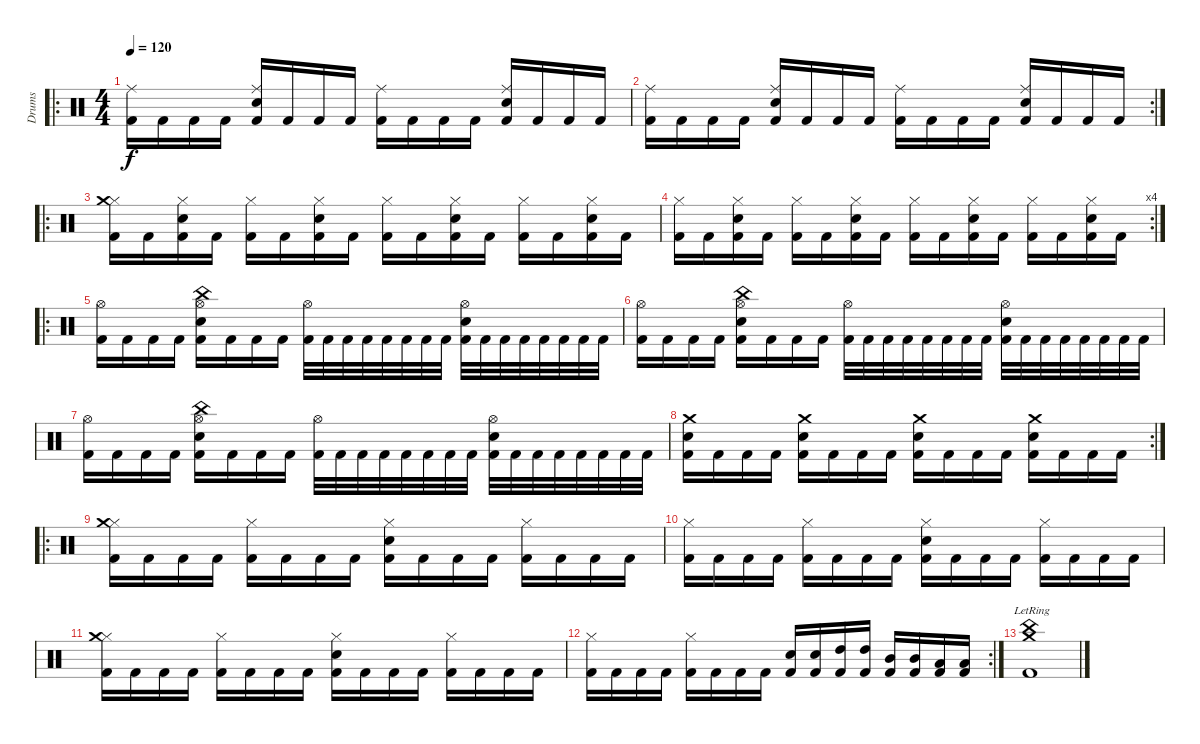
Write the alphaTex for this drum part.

\track ("Drums" "Drums") {instrument percussion}
\staff {score}
\articulation defaults
\ro
\ts (4 4)
\tempo 120
\clef neutral
\ks c
("Kick (hit) 2" "Ride (middle)").16{dy f} "Kick (hit) 2".16 "Kick (hit) 2".16 "Kick (hit) 2".16 ("Kick (hit) 2" "Ride (middle)" "Snare (hit) 2").16 "Kick (hit) 2".16 "Kick (hit) 2".16 "Kick (hit) 2".16 ("Kick (hit) 2" "Ride (middle)").16 "Kick (hit) 2".16 "Kick (hit) 2".16 "Kick (hit) 2".16 ("Kick (hit) 2" "Ride (middle)" "Snare (hit) 2").16 "Kick (hit) 2".16 "Kick (hit) 2".16 "Kick (hit) 2".16 |
\rc 2
("Kick (hit) 2" "Ride (middle)").16 "Kick (hit) 2".16 "Kick (hit) 2".16 "Kick (hit) 2".16 ("Kick (hit) 2" "Ride (middle)" "Snare (hit) 2").16 "Kick (hit) 2".16 "Kick (hit) 2".16 "Kick (hit) 2".16 ("Kick (hit) 2" "Ride (middle)").16 "Kick (hit) 2".16 "Kick (hit) 2".16 "Kick (hit) 2".16 ("Kick (hit) 2" "Ride (middle)" "Snare (hit) 2").16 "Kick (hit) 2".16 "Kick (hit) 2".16 "Kick (hit) 2".16 |
\ro
("Kick (hit) 2" "Hi-Hat (closed)" "Crash medium (hit)").16 "Kick (hit) 2".16 ("Kick (hit) 2" "Hi-Hat (closed)" "Snare (hit) 2").16 "Kick (hit) 2".16 ("Kick (hit) 2" "Hi-Hat (closed)").16 "Kick (hit) 2".16 ("Kick (hit) 2" "Hi-Hat (closed)" "Snare (hit) 2").16 "Kick (hit) 2".16 ("Kick (hit) 2" "Hi-Hat (closed)").16 "Kick (hit) 2".16 ("Kick (hit) 2" "Hi-Hat (closed)" "Snare (hit) 2").16 "Kick (hit) 2".16 ("Kick (hit) 2" "Hi-Hat (closed)").16 "Kick (hit) 2".16 ("Kick (hit) 2" "Hi-Hat (closed)" "Snare (hit) 2").16 "Kick (hit) 2".16 |
\rc 4
("Kick (hit) 2" "Hi-Hat (closed)").16 "Kick (hit) 2".16 ("Kick (hit) 2" "Hi-Hat (closed)" "Snare (hit) 2").16 "Kick (hit) 2".16 ("Kick (hit) 2" "Hi-Hat (closed)").16 "Kick (hit) 2".16 ("Kick (hit) 2" "Hi-Hat (closed)" "Snare (hit) 2").16 "Kick (hit) 2".16 ("Kick (hit) 2" "Hi-Hat (closed)").16 "Kick (hit) 2".16 ("Kick (hit) 2" "Hi-Hat (closed)" "Snare (hit) 2").16 "Kick (hit) 2".16 ("Kick (hit) 2" "Hi-Hat (closed)").16 "Kick (hit) 2".16 ("Kick (hit) 2" "Hi-Hat (closed)" "Snare (hit) 2").16 "Kick (hit) 2".16 |
\ro
("Kick (hit) 2" "Hi-Hat (open)").16 "Kick (hit) 2".16 "Kick (hit) 2".16 "Kick (hit) 2".16 ("Kick (hit) 2" "Hi-Hat (open)" "Snare (hit) 2" "China (hit)").16 "Kick (hit) 2".16 "Kick (hit) 2".16 "Kick (hit) 2".16 ("Kick (hit) 2" "Hi-Hat (open)").32 "Kick (hit) 2".32 "Kick (hit) 2".32 "Kick (hit) 2".32 "Kick (hit) 2".32 "Kick (hit) 2".32 "Kick (hit) 2".32 "Kick (hit) 2".32 ("Kick (hit) 2" "Hi-Hat (open)" "Snare (hit) 2").32 "Kick (hit) 2".32 "Kick (hit) 2".32 "Kick (hit) 2".32 "Kick (hit) 2".32 "Kick (hit) 2".32 "Kick (hit) 2".32 "Kick (hit) 2".32 |
("Kick (hit) 2" "Hi-Hat (open)").16 "Kick (hit) 2".16 "Kick (hit) 2".16 "Kick (hit) 2".16 ("Kick (hit) 2" "Hi-Hat (open)" "Snare (hit) 2" "China (hit)").16 "Kick (hit) 2".16 "Kick (hit) 2".16 "Kick (hit) 2".16 ("Kick (hit) 2" "Hi-Hat (open)").32 "Kick (hit) 2".32 "Kick (hit) 2".32 "Kick (hit) 2".32 "Kick (hit) 2".32 "Kick (hit) 2".32 "Kick (hit) 2".32 "Kick (hit) 2".32 ("Kick (hit) 2" "Hi-Hat (open)" "Snare (hit) 2").32 "Kick (hit) 2".32 "Kick (hit) 2".32 "Kick (hit) 2".32 "Kick (hit) 2".32 "Kick (hit) 2".32 "Kick (hit) 2".32 "Kick (hit) 2".32 |
("Kick (hit) 2" "Hi-Hat (open)").16 "Kick (hit) 2".16 "Kick (hit) 2".16 "Kick (hit) 2".16 ("Kick (hit) 2" "Hi-Hat (open)" "Snare (hit) 2" "China (hit)").16 "Kick (hit) 2".16 "Kick (hit) 2".16 "Kick (hit) 2".16 ("Kick (hit) 2" "Hi-Hat (open)").32 "Kick (hit) 2".32 "Kick (hit) 2".32 "Kick (hit) 2".32 "Kick (hit) 2".32 "Kick (hit) 2".32 "Kick (hit) 2".32 "Kick (hit) 2".32 ("Kick (hit) 2" "Hi-Hat (open)" "Snare (hit) 2").32 "Kick (hit) 2".32 "Kick (hit) 2".32 "Kick (hit) 2".32 "Kick (hit) 2".32 "Kick (hit) 2".32 "Kick (hit) 2".32 "Kick (hit) 2".32 |
\rc 2
("Kick (hit) 2" "Snare (hit) 2" "Crash medium (hit)").16 "Kick (hit) 2".16 "Kick (hit) 2".16 "Kick (hit) 2".16 ("Kick (hit) 2" "Snare (hit) 2" "Crash medium (hit)").16 "Kick (hit) 2".16 "Kick (hit) 2".16 "Kick (hit) 2".16 ("Kick (hit) 2" "Snare (hit) 2" "Crash medium (hit)").16 "Kick (hit) 2".16 "Kick (hit) 2".16 "Kick (hit) 2".16 ("Kick (hit) 2" "Snare (hit) 2" "Crash medium (hit)").16 "Kick (hit) 2".16 "Kick (hit) 2".16 "Kick (hit) 2".16 |
\ro
("Kick (hit) 2" "Hi-Hat (closed)" "Crash medium (hit)").16 "Kick (hit) 2".16 "Kick (hit) 2".16 "Kick (hit) 2".16 ("Kick (hit) 2" "Hi-Hat (closed)").16 "Kick (hit) 2".16 "Kick (hit) 2".16 "Kick (hit) 2".16 ("Kick (hit) 2" "Hi-Hat (closed)" "Snare (hit) 2").16 "Kick (hit) 2".16 "Kick (hit) 2".16 "Kick (hit) 2".16 ("Kick (hit) 2" "Hi-Hat (closed)").16 "Kick (hit) 2".16 "Kick (hit) 2".16 "Kick (hit) 2".16 |
("Kick (hit) 2" "Hi-Hat (closed)").16 "Kick (hit) 2".16 "Kick (hit) 2".16 "Kick (hit) 2".16 ("Kick (hit) 2" "Hi-Hat (closed)").16 "Kick (hit) 2".16 "Kick (hit) 2".16 "Kick (hit) 2".16 ("Kick (hit) 2" "Hi-Hat (closed)" "Snare (hit) 2").16 "Kick (hit) 2".16 "Kick (hit) 2".16 "Kick (hit) 2".16 ("Kick (hit) 2" "Hi-Hat (closed)").16 "Kick (hit) 2".16 "Kick (hit) 2".16 "Kick (hit) 2".16 |
("Kick (hit) 2" "Hi-Hat (closed)" "Crash medium (hit)").16 "Kick (hit) 2".16 "Kick (hit) 2".16 "Kick (hit) 2".16 ("Kick (hit) 2" "Hi-Hat (closed)").16 "Kick (hit) 2".16 "Kick (hit) 2".16 "Kick (hit) 2".16 ("Kick (hit) 2" "Hi-Hat (closed)" "Snare (hit) 2").16 "Kick (hit) 2".16 "Kick (hit) 2".16 "Kick (hit) 2".16 ("Kick (hit) 2" "Hi-Hat (closed)").16 "Kick (hit) 2".16 "Kick (hit) 2".16 "Kick (hit) 2".16 |
\rc 2
("Kick (hit) 2" "Hi-Hat (closed)").16 "Kick (hit) 2".16 "Kick (hit) 2".16 "Kick (hit) 2".16 ("Kick (hit) 2" "Hi-Hat (closed)").16 "Kick (hit) 2".16 "Kick (hit) 2".16 "Kick (hit) 2".16 ("Kick (hit) 2" "Snare (hit) 2").16 ("Kick (hit) 2" "Snare (hit) 2").16 ("Kick (hit) 2" "High Tom (hit)").16 ("Kick (hit) 2" "High Tom (hit)").16 ("Kick (hit) 2" "Mid Tom (hit)").16 ("Kick (hit) 2" "Mid Tom (hit)").16 ("Kick (hit) 2" "Low Tom (hit)").16 ("Kick (hit) 2" "Low Tom (hit)").16 |
("Kick (hit) 2"{lr} "China (hit)"{lr} "Crash medium (hit)"{lr}).1
